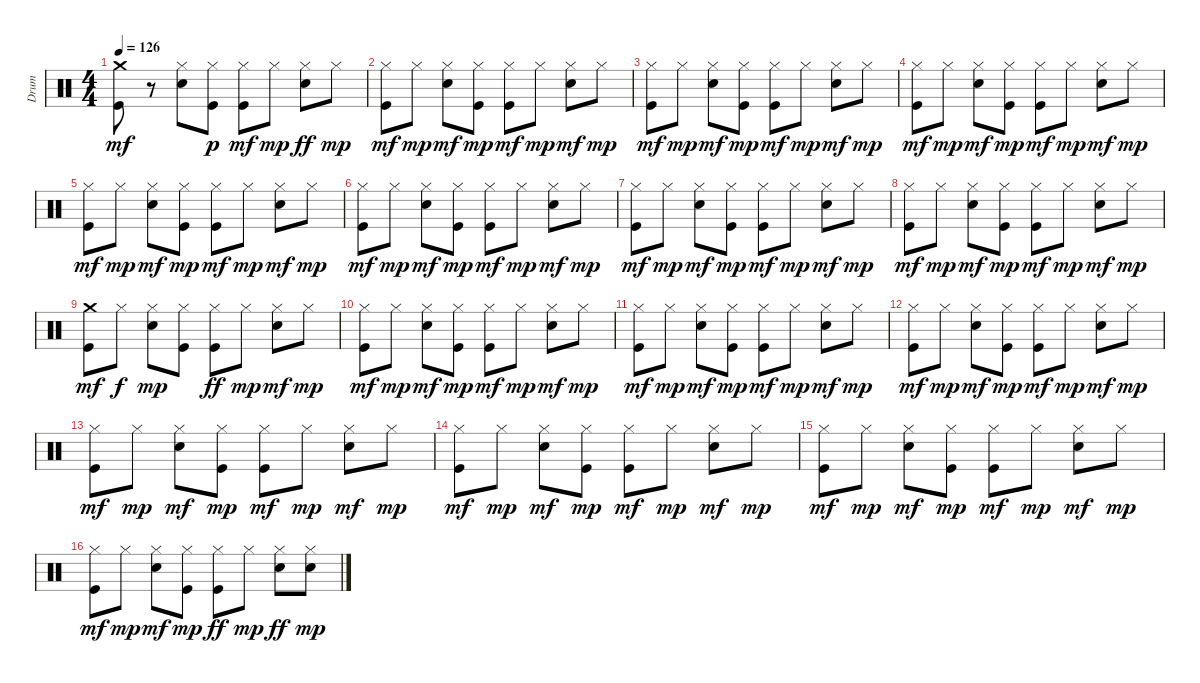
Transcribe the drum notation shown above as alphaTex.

\track ("Drum" "Drum") {instrument percussion}
\staff {score}
\articulation defaults
\ts (4 4)
\tempo 126
\clef neutral
\ks c
("Kick (hit)" "Crash medium (hit)").8{dy mf} r.8 ("Snare (hit) 2" "Hi-Hat (closed)").8 ("Kick (hit)" "Hi-Hat (closed)").8{dy p} ("Kick (hit)" "Hi-Hat (closed)").8{dy mf} "Hi-Hat (closed)".8{dy mp} ("Snare (hit) 2" "Hi-Hat (closed)").8{dy ff} "Hi-Hat (closed)".8{dy mp} |
("Kick (hit)" "Hi-Hat (closed)").8{dy mf} "Hi-Hat (closed)".8{dy mp} ("Snare (hit) 2" "Hi-Hat (closed)").8{dy mf} ("Kick (hit)" "Hi-Hat (closed)").8{dy mp} ("Kick (hit)" "Hi-Hat (closed)").8{dy mf} "Hi-Hat (closed)".8{dy mp} ("Snare (hit) 2" "Hi-Hat (closed)").8{dy mf} "Hi-Hat (closed)".8{dy mp} |
("Kick (hit)" "Hi-Hat (closed)").8{dy mf} "Hi-Hat (closed)".8{dy mp} ("Snare (hit) 2" "Hi-Hat (closed)").8{dy mf} ("Kick (hit)" "Hi-Hat (closed)").8{dy mp} ("Kick (hit)" "Hi-Hat (closed)").8{dy mf} "Hi-Hat (closed)".8{dy mp} ("Snare (hit) 2" "Hi-Hat (closed)").8{dy mf} "Hi-Hat (closed)".8{dy mp} |
("Kick (hit)" "Hi-Hat (closed)").8{dy mf} "Hi-Hat (closed)".8{dy mp} ("Snare (hit) 2" "Hi-Hat (closed)").8{dy mf} ("Kick (hit)" "Hi-Hat (closed)").8{dy mp} ("Kick (hit)" "Hi-Hat (closed)").8{dy mf} "Hi-Hat (closed)".8{dy mp} ("Snare (hit) 2" "Hi-Hat (closed)").8{dy mf} "Hi-Hat (closed)".8{dy mp} |
("Kick (hit)" "Hi-Hat (closed)").8{dy mf} "Hi-Hat (closed)".8{dy mp} ("Snare (hit) 2" "Hi-Hat (closed)").8{dy mf} ("Kick (hit)" "Hi-Hat (closed)").8{dy mp} ("Kick (hit)" "Hi-Hat (closed)").8{dy mf} "Hi-Hat (closed)".8{dy mp} ("Snare (hit) 2" "Hi-Hat (closed)").8{dy mf} "Hi-Hat (closed)".8{dy mp} |
("Kick (hit)" "Hi-Hat (closed)").8{dy mf} "Hi-Hat (closed)".8{dy mp} ("Snare (hit) 2" "Hi-Hat (closed)").8{dy mf} ("Kick (hit)" "Hi-Hat (closed)").8{dy mp} ("Kick (hit)" "Hi-Hat (closed)").8{dy mf} "Hi-Hat (closed)".8{dy mp} ("Snare (hit) 2" "Hi-Hat (closed)").8{dy mf} "Hi-Hat (closed)".8{dy mp} |
("Kick (hit)" "Hi-Hat (closed)").8{dy mf} "Hi-Hat (closed)".8{dy mp} ("Snare (hit) 2" "Hi-Hat (closed)").8{dy mf} ("Kick (hit)" "Hi-Hat (closed)").8{dy mp} ("Kick (hit)" "Hi-Hat (closed)").8{dy mf} "Hi-Hat (closed)".8{dy mp} ("Snare (hit) 2" "Hi-Hat (closed)").8{dy mf} "Hi-Hat (closed)".8{dy mp} |
("Kick (hit)" "Hi-Hat (closed)").8{dy mf} "Hi-Hat (closed)".8{dy mp} ("Snare (hit) 2" "Hi-Hat (closed)").8{dy mf} ("Kick (hit)" "Hi-Hat (closed)").8{dy mp} ("Kick (hit)" "Hi-Hat (closed)").8{dy mf} "Hi-Hat (closed)".8{dy mp} ("Snare (hit) 2" "Hi-Hat (closed)").8{dy mf} "Hi-Hat (closed)".8{dy mp} |
("Kick (hit)" "Crash medium (hit)").8{dy mf} "Hi-Hat (closed)".8{dy f} ("Snare (hit) 2" "Hi-Hat (closed)").8{dy mp} ("Kick (hit)" "Hi-Hat (closed)").8 ("Kick (hit)" "Hi-Hat (closed)").8{dy ff} "Hi-Hat (closed)".8{dy mp} ("Snare (hit) 2" "Hi-Hat (closed)").8{dy mf} "Hi-Hat (closed)".8{dy mp} |
("Kick (hit)" "Hi-Hat (closed)").8{dy mf} "Hi-Hat (closed)".8{dy mp} ("Snare (hit) 2" "Hi-Hat (closed)").8{dy mf} ("Kick (hit)" "Hi-Hat (closed)").8{dy mp} ("Kick (hit)" "Hi-Hat (closed)").8{dy mf} "Hi-Hat (closed)".8{dy mp} ("Snare (hit) 2" "Hi-Hat (closed)").8{dy mf} "Hi-Hat (closed)".8{dy mp} |
("Kick (hit)" "Hi-Hat (closed)").8{dy mf} "Hi-Hat (closed)".8{dy mp} ("Snare (hit) 2" "Hi-Hat (closed)").8{dy mf} ("Kick (hit)" "Hi-Hat (closed)").8{dy mp} ("Kick (hit)" "Hi-Hat (closed)").8{dy mf} "Hi-Hat (closed)".8{dy mp} ("Snare (hit) 2" "Hi-Hat (closed)").8{dy mf} "Hi-Hat (closed)".8{dy mp} |
("Kick (hit)" "Hi-Hat (closed)").8{dy mf} "Hi-Hat (closed)".8{dy mp} ("Snare (hit) 2" "Hi-Hat (closed)").8{dy mf} ("Kick (hit)" "Hi-Hat (closed)").8{dy mp} ("Kick (hit)" "Hi-Hat (closed)").8{dy mf} "Hi-Hat (closed)".8{dy mp} ("Snare (hit) 2" "Hi-Hat (closed)").8{dy mf} "Hi-Hat (closed)".8{dy mp} |
("Kick (hit)" "Hi-Hat (closed)").8{dy mf} "Hi-Hat (closed)".8{dy mp} ("Snare (hit) 2" "Hi-Hat (closed)").8{dy mf} ("Kick (hit)" "Hi-Hat (closed)").8{dy mp} ("Kick (hit)" "Hi-Hat (closed)").8{dy mf} "Hi-Hat (closed)".8{dy mp} ("Snare (hit) 2" "Hi-Hat (closed)").8{dy mf} "Hi-Hat (closed)".8{dy mp} |
("Kick (hit)" "Hi-Hat (closed)").8{dy mf} "Hi-Hat (closed)".8{dy mp} ("Snare (hit) 2" "Hi-Hat (closed)").8{dy mf} ("Kick (hit)" "Hi-Hat (closed)").8{dy mp} ("Kick (hit)" "Hi-Hat (closed)").8{dy mf} "Hi-Hat (closed)".8{dy mp} ("Snare (hit) 2" "Hi-Hat (closed)").8{dy mf} "Hi-Hat (closed)".8{dy mp} |
("Kick (hit)" "Hi-Hat (closed)").8{dy mf} "Hi-Hat (closed)".8{dy mp} ("Snare (hit) 2" "Hi-Hat (closed)").8{dy mf} ("Kick (hit)" "Hi-Hat (closed)").8{dy mp} ("Kick (hit)" "Hi-Hat (closed)").8{dy mf} "Hi-Hat (closed)".8{dy mp} ("Snare (hit) 2" "Hi-Hat (closed)").8{dy mf} "Hi-Hat (closed)".8{dy mp} |
("Kick (hit)" "Hi-Hat (closed)").8{dy mf} "Hi-Hat (closed)".8{dy mp} ("Snare (hit) 2" "Hi-Hat (closed)").8{dy mf} ("Kick (hit)" "Hi-Hat (closed)").8{dy mp} ("Kick (hit)" "Hi-Hat (closed)").8{dy ff} "Hi-Hat (closed)".8{dy mp} ("Snare (hit) 2" "Hi-Hat (closed)").8{dy ff} ("Snare (hit) 2" "Hi-Hat (closed)").8{dy mp}
